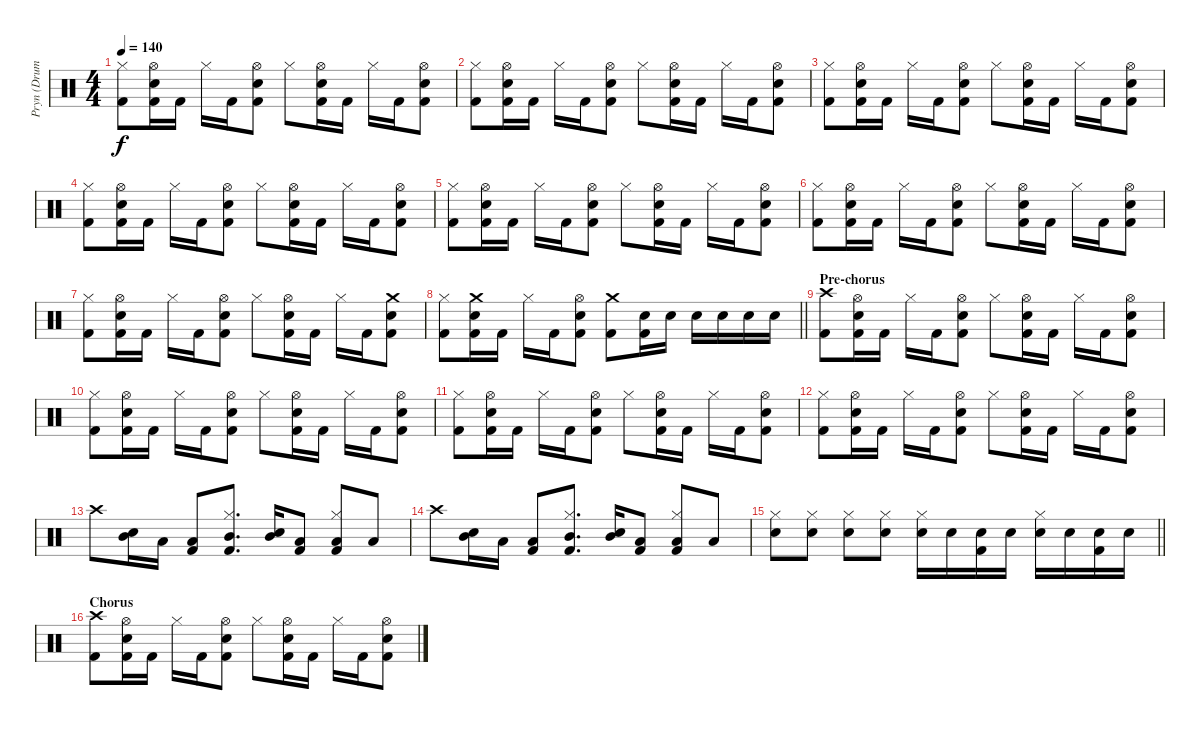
\track ("Pryn (Drums)" "Pryn (Drum") {instrument percussion}
\staff {score}
\articulation defaults
\ts (4 4)
\tempo 140
\clef neutral
\ks c
("Kick (hit) 2" "Hi-Hat (closed)").8{dy f} ("Snare (hit) 2" "Hi-Hat (open)" "Kick (hit) 2").16 "Kick (hit) 2".16 "Hi-Hat (closed)".16 "Kick (hit) 2".16 ("Snare (hit) 2" "Hi-Hat (open)" "Kick (hit) 2").8 "Hi-Hat (closed)".8 ("Snare (hit) 2" "Hi-Hat (open)" "Kick (hit) 2").16 "Kick (hit) 2".16 "Hi-Hat (closed)".16 "Kick (hit) 2".16 ("Snare (hit) 2" "Hi-Hat (open)" "Kick (hit) 2").8 |
("Kick (hit) 2" "Hi-Hat (closed)").8 ("Snare (hit) 2" "Hi-Hat (open)" "Kick (hit) 2").16 "Kick (hit) 2".16 "Hi-Hat (closed)".16 "Kick (hit) 2".16 ("Snare (hit) 2" "Hi-Hat (open)" "Kick (hit) 2").8 "Hi-Hat (closed)".8 ("Snare (hit) 2" "Hi-Hat (open)" "Kick (hit) 2").16 "Kick (hit) 2".16 "Hi-Hat (closed)".16 "Kick (hit) 2".16 ("Snare (hit) 2" "Hi-Hat (open)" "Kick (hit) 2").8 |
("Kick (hit) 2" "Hi-Hat (closed)").8 ("Snare (hit) 2" "Hi-Hat (open)" "Kick (hit) 2").16 "Kick (hit) 2".16 "Hi-Hat (closed)".16 "Kick (hit) 2".16 ("Snare (hit) 2" "Hi-Hat (open)" "Kick (hit) 2").8 "Hi-Hat (closed)".8 ("Snare (hit) 2" "Hi-Hat (open)" "Kick (hit) 2").16 "Kick (hit) 2".16 "Hi-Hat (closed)".16 "Kick (hit) 2".16 ("Snare (hit) 2" "Hi-Hat (open)" "Kick (hit) 2").8 |
("Kick (hit) 2" "Hi-Hat (closed)").8 ("Snare (hit) 2" "Hi-Hat (open)" "Kick (hit) 2").16 "Kick (hit) 2".16 "Hi-Hat (closed)".16 "Kick (hit) 2".16 ("Snare (hit) 2" "Hi-Hat (open)" "Kick (hit) 2").8 "Hi-Hat (closed)".8 ("Snare (hit) 2" "Hi-Hat (open)" "Kick (hit) 2").16 "Kick (hit) 2".16 "Hi-Hat (closed)".16 "Kick (hit) 2".16 ("Snare (hit) 2" "Hi-Hat (open)" "Kick (hit) 2").8 |
("Kick (hit) 2" "Hi-Hat (closed)").8 ("Snare (hit) 2" "Hi-Hat (open)" "Kick (hit) 2").16 "Kick (hit) 2".16 "Hi-Hat (closed)".16 "Kick (hit) 2".16 ("Snare (hit) 2" "Hi-Hat (open)" "Kick (hit) 2").8 "Hi-Hat (closed)".8 ("Snare (hit) 2" "Hi-Hat (open)" "Kick (hit) 2").16 "Kick (hit) 2".16 "Hi-Hat (closed)".16 "Kick (hit) 2".16 ("Snare (hit) 2" "Hi-Hat (open)" "Kick (hit) 2").8 |
("Kick (hit) 2" "Hi-Hat (closed)").8 ("Snare (hit) 2" "Hi-Hat (open)" "Kick (hit) 2").16 "Kick (hit) 2".16 "Hi-Hat (closed)".16 "Kick (hit) 2".16 ("Snare (hit) 2" "Hi-Hat (open)" "Kick (hit) 2").8 "Hi-Hat (closed)".8 ("Snare (hit) 2" "Hi-Hat (open)" "Kick (hit) 2").16 "Kick (hit) 2".16 "Hi-Hat (closed)".16 "Kick (hit) 2".16 ("Snare (hit) 2" "Hi-Hat (open)" "Kick (hit) 2").8 |
("Kick (hit) 2" "Hi-Hat (closed)").8 ("Snare (hit) 2" "Hi-Hat (open)" "Kick (hit) 2").16 "Kick (hit) 2".16 "Hi-Hat (closed)".16 "Kick (hit) 2".16 ("Snare (hit) 2" "Hi-Hat (open)" "Kick (hit) 2").8 "Hi-Hat (closed)".8 ("Snare (hit) 2" "Hi-Hat (open)" "Kick (hit) 2").16 "Kick (hit) 2".16 "Hi-Hat (closed)".16 "Kick (hit) 2".16 ("Snare (hit) 2" "Crash medium (hit)" "Kick (hit) 2").8 |
\barLineRight lightlight
("Kick (hit) 2" "Hi-Hat (closed)").8 ("Snare (hit) 2" "Crash medium (hit)" "Kick (hit) 2").16 "Kick (hit) 2".16 "Hi-Hat (closed)".16 "Kick (hit) 2".16 ("Snare (hit) 2" "Hi-Hat (open)" "Kick (hit) 2").8 ("Crash medium (hit)" "Kick (hit) 2").8 ("Snare (hit) 2" "Kick (hit) 2").16 "Snare (hit) 2".16 "Snare (hit) 2".16 "Snare (hit) 2".16 "Snare (hit) 2".16 "Snare (hit) 2".16 |
\section ("" "Pre-chorus")
("Crash high (hit)" "Kick (hit) 2").8 ("Snare (hit) 2" "Hi-Hat (open)" "Kick (hit) 2").16 "Kick (hit) 2".16 "Hi-Hat (closed)".16 "Kick (hit) 2".16 ("Snare (hit) 2" "Hi-Hat (open)" "Kick (hit) 2").8 "Hi-Hat (closed)".8 ("Snare (hit) 2" "Hi-Hat (open)" "Kick (hit) 2").16 "Kick (hit) 2".16 "Hi-Hat (closed)".16 "Kick (hit) 2".16 ("Snare (hit) 2" "Hi-Hat (open)" "Kick (hit) 2").8 |
("Kick (hit) 2" "Hi-Hat (closed)").8 ("Snare (hit) 2" "Hi-Hat (open)" "Kick (hit) 2").16 "Kick (hit) 2".16 "Hi-Hat (closed)".16 "Kick (hit) 2".16 ("Snare (hit) 2" "Hi-Hat (open)" "Kick (hit) 2").8 "Hi-Hat (closed)".8 ("Snare (hit) 2" "Hi-Hat (open)" "Kick (hit) 2").16 "Kick (hit) 2".16 "Hi-Hat (closed)".16 "Kick (hit) 2".16 ("Snare (hit) 2" "Hi-Hat (open)" "Kick (hit) 2").8 |
("Kick (hit) 2" "Hi-Hat (closed)").8 ("Snare (hit) 2" "Hi-Hat (open)" "Kick (hit) 2").16 "Kick (hit) 2".16 "Hi-Hat (closed)".16 "Kick (hit) 2".16 ("Snare (hit) 2" "Hi-Hat (open)" "Kick (hit) 2").8 "Hi-Hat (closed)".8 ("Snare (hit) 2" "Hi-Hat (open)" "Kick (hit) 2").16 "Kick (hit) 2".16 "Hi-Hat (closed)".16 "Kick (hit) 2".16 ("Snare (hit) 2" "Hi-Hat (open)" "Kick (hit) 2").8 |
("Kick (hit) 2" "Hi-Hat (closed)").8 ("Snare (hit) 2" "Hi-Hat (open)" "Kick (hit) 2").16 "Kick (hit) 2".16 "Hi-Hat (closed)".16 "Kick (hit) 2".16 ("Snare (hit) 2" "Hi-Hat (open)" "Kick (hit) 2").8 "Hi-Hat (closed)".8 ("Snare (hit) 2" "Hi-Hat (open)" "Kick (hit) 2").16 "Kick (hit) 2".16 "Hi-Hat (closed)".16 "Kick (hit) 2".16 ("Snare (hit) 2" "Hi-Hat (open)" "Kick (hit) 2").8 |
"Crash high (hit)".8 ("Mid Tom (hit)" "Snare (hit) 2").16 "Low Tom (hit)".16 ("Low Floor Tom (hit)" "Kick (hit) 2").8 ("Mid Tom (hit)" "Kick (hit) 2" "Hi-Hat (closed)").8{d} ("Mid Tom (hit)" "Snare (hit) 2").16 ("Low Tom (hit)" "Kick (hit) 2").8 ("Low Floor Tom (hit)" "Kick (hit) 2" "Hi-Hat (closed)").8 "Low Tom (hit)".8 |
"Crash high (hit)".8 ("Mid Tom (hit)" "Snare (hit) 2").16 "Low Tom (hit)".16 ("Low Floor Tom (hit)" "Kick (hit) 2").8 ("Mid Tom (hit)" "Kick (hit) 2" "Hi-Hat (closed)").8{d} ("Mid Tom (hit)" "Snare (hit) 2").16 ("Low Tom (hit)" "Kick (hit) 2").8 ("Low Floor Tom (hit)" "Kick (hit) 2" "Hi-Hat (closed)").8 "Low Tom (hit)".8 |
\barLineRight lightlight
("Hi-Hat (closed)" "Snare (hit) 2").8 ("Hi-Hat (closed)" "Snare (hit) 2").8 ("Hi-Hat (closed)" "Snare (hit) 2").8 ("Hi-Hat (closed)" "Snare (hit) 2").8 ("Snare (hit) 2" "Hi-Hat (closed)").16 "Snare (hit) 2".16 ("Snare (hit) 2" "Kick (hit) 2").16 "Snare (hit) 2".16 ("Snare (hit) 2" "Hi-Hat (closed)").16 "Snare (hit) 2".16 ("Snare (hit) 2" "Kick (hit) 2").16 "Snare (hit) 2".16 |
\section ("" "Chorus")
("Crash high (hit)" "Kick (hit) 2").8 ("Snare (hit) 2" "Hi-Hat (open)" "Kick (hit) 2").16 "Kick (hit) 2".16 "Hi-Hat (closed)".16 "Kick (hit) 2".16 ("Snare (hit) 2" "Hi-Hat (open)" "Kick (hit) 2").8 "Hi-Hat (closed)".8 ("Snare (hit) 2" "Hi-Hat (open)" "Kick (hit) 2").16 "Kick (hit) 2".16 "Hi-Hat (closed)".16 "Kick (hit) 2".16 ("Snare (hit) 2" "Hi-Hat (open)" "Kick (hit) 2").8
